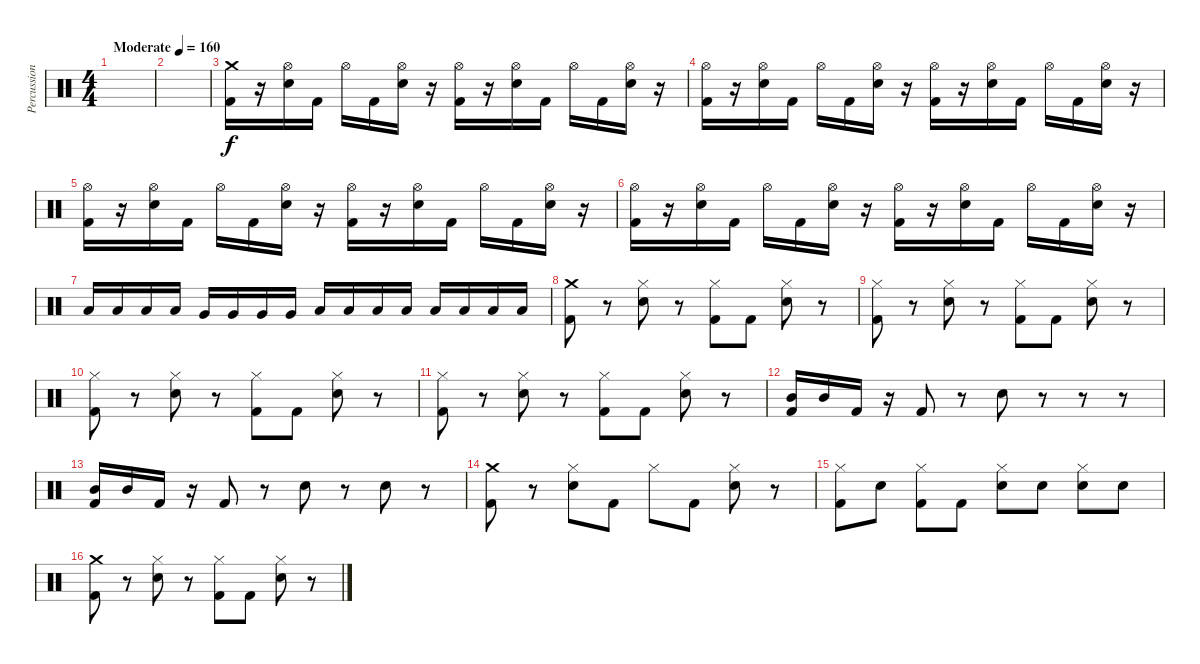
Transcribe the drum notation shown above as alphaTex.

\track ("Percussion" "Percussion") {instrument percussion}
\staff {score}
\articulation defaults
\ts (4 4)
\tempo (160 "Moderate")
\clef neutral
\ks c
|
|
("Crash medium (hit)" "Kick (hit) 2").16 r.16 ("Hi-Hat (open)" "Snare (hit) 2").16 "Kick (hit) 2".16 "Hi-Hat (open)".16 "Kick (hit) 2".16 ("Hi-Hat (open)" "Snare (hit) 2").16 r.16 ("Hi-Hat (open)" "Kick (hit) 2").16 r.16 ("Hi-Hat (open)" "Snare (hit) 2").16 "Kick (hit) 2".16 "Hi-Hat (open)".16 "Kick (hit) 2".16 ("Hi-Hat (open)" "Snare (hit) 2").16 r.16 |
("Hi-Hat (open)" "Kick (hit) 2").16 r.16 ("Hi-Hat (open)" "Snare (hit) 2").16 "Kick (hit) 2".16 "Hi-Hat (open)".16 "Kick (hit) 2".16 ("Hi-Hat (open)" "Snare (hit) 2").16 r.16 ("Hi-Hat (open)" "Kick (hit) 2").16 r.16 ("Hi-Hat (open)" "Snare (hit) 2").16 "Kick (hit) 2".16 "Hi-Hat (open)".16 "Kick (hit) 2".16 ("Hi-Hat (open)" "Snare (hit) 2").16 r.16 |
("Hi-Hat (open)" "Kick (hit) 2").16 r.16 ("Hi-Hat (open)" "Snare (hit) 2").16 "Kick (hit) 2".16 "Hi-Hat (open)".16 "Kick (hit) 2".16 ("Hi-Hat (open)" "Snare (hit) 2").16 r.16 ("Hi-Hat (open)" "Kick (hit) 2").16 r.16 ("Hi-Hat (open)" "Snare (hit) 2").16 "Kick (hit) 2".16 "Hi-Hat (open)".16 "Kick (hit) 2".16 ("Hi-Hat (open)" "Snare (hit) 2").16 r.16 |
("Hi-Hat (open)" "Kick (hit) 2").16 r.16 ("Hi-Hat (open)" "Snare (hit) 2").16 "Kick (hit) 2".16 "Hi-Hat (open)".16 "Kick (hit) 2".16 ("Hi-Hat (open)" "Snare (hit) 2").16 r.16 ("Hi-Hat (open)" "Kick (hit) 2").16 r.16 ("Hi-Hat (open)" "Snare (hit) 2").16 "Kick (hit) 2".16 "Hi-Hat (open)".16 "Kick (hit) 2".16 ("Hi-Hat (open)" "Snare (hit) 2").16 r.16 |
"Low Tom (hit)".16 "Low Tom (hit)".16 "Low Tom (hit)".16 "Low Tom (hit)".16 "Very Low Tom (hit)".16 "Very Low Tom (hit)".16 "Very Low Tom (hit)".16 "Very Low Tom (hit)".16 "Low Floor Tom (hit)".16 "Low Floor Tom (hit)".16 "Low Floor Tom (hit)".16 "Low Floor Tom (hit)".16 "Low Floor Tom (hit)".16 "Low Floor Tom (hit)".16 "Low Floor Tom (hit)".16 "Low Floor Tom (hit)".16 |
("Crash medium (hit)" "Kick (hit) 2").8 r.8 ("Hi-Hat (closed)" "Snare (hit) 2").8 r.8 ("Hi-Hat (closed)" "Kick (hit) 2").8 "Kick (hit) 2".8 ("Hi-Hat (closed)" "Snare (hit) 2").8 r.8 |
("Hi-Hat (closed)" "Kick (hit) 2").8 r.8 ("Hi-Hat (closed)" "Snare (hit) 2").8 r.8 ("Hi-Hat (closed)" "Kick (hit) 2").8 "Kick (hit) 2".8 ("Hi-Hat (closed)" "Snare (hit) 2").8 r.8 |
("Hi-Hat (closed)" "Kick (hit) 2").8 r.8 ("Hi-Hat (closed)" "Snare (hit) 2").8 r.8 ("Hi-Hat (closed)" "Kick (hit) 2").8 "Kick (hit) 2".8 ("Hi-Hat (closed)" "Snare (hit) 2").8 r.8 |
("Hi-Hat (closed)" "Kick (hit) 2").8 r.8 ("Hi-Hat (closed)" "Snare (hit) 2").8 r.8 ("Hi-Hat (closed)" "Kick (hit) 2").8 "Kick (hit) 2".8 ("Hi-Hat (closed)" "Snare (hit) 2").8 r.8 |
("Kick (hit) 2" "Mid Tom (hit)").16 "Mid Tom (hit)".16 "Kick (hit) 2".16 r.16 "Kick (hit) 2".8 r.8 "Snare (hit) 2".8 r.8 r.8 r.8 |
("Kick (hit) 2" "Mid Tom (hit)").16 "Mid Tom (hit)".16 "Kick (hit) 2".16 r.16 "Kick (hit) 2".8 r.8 "Snare (hit) 2".8 r.8 "Snare (hit) 2".8 r.8 |
("Crash medium (hit)" "Kick (hit) 2").8 r.8 ("Hi-Hat (closed)" "Snare (hit) 2").8 "Kick (hit) 2".8 "Hi-Hat (closed)".8 "Kick (hit) 2".8 ("Hi-Hat (closed)" "Snare (hit) 2").8 r.8 |
("Hi-Hat (closed)" "Kick (hit) 2").8 "Snare (hit) 2".8 ("Hi-Hat (closed)" "Kick (hit) 2").8 "Kick (hit) 2".8 ("Hi-Hat (closed)" "Snare (hit) 2").8 "Snare (hit) 2".8 ("Hi-Hat (closed)" "Snare (hit) 2").8 "Snare (hit) 2".8 |
("Crash medium (hit)" "Kick (hit) 2").8 r.8 ("Hi-Hat (closed)" "Snare (hit) 2").8 r.8 ("Hi-Hat (closed)" "Kick (hit) 2").8 "Kick (hit) 2".8 ("Hi-Hat (closed)" "Snare (hit) 2").8 r.8
